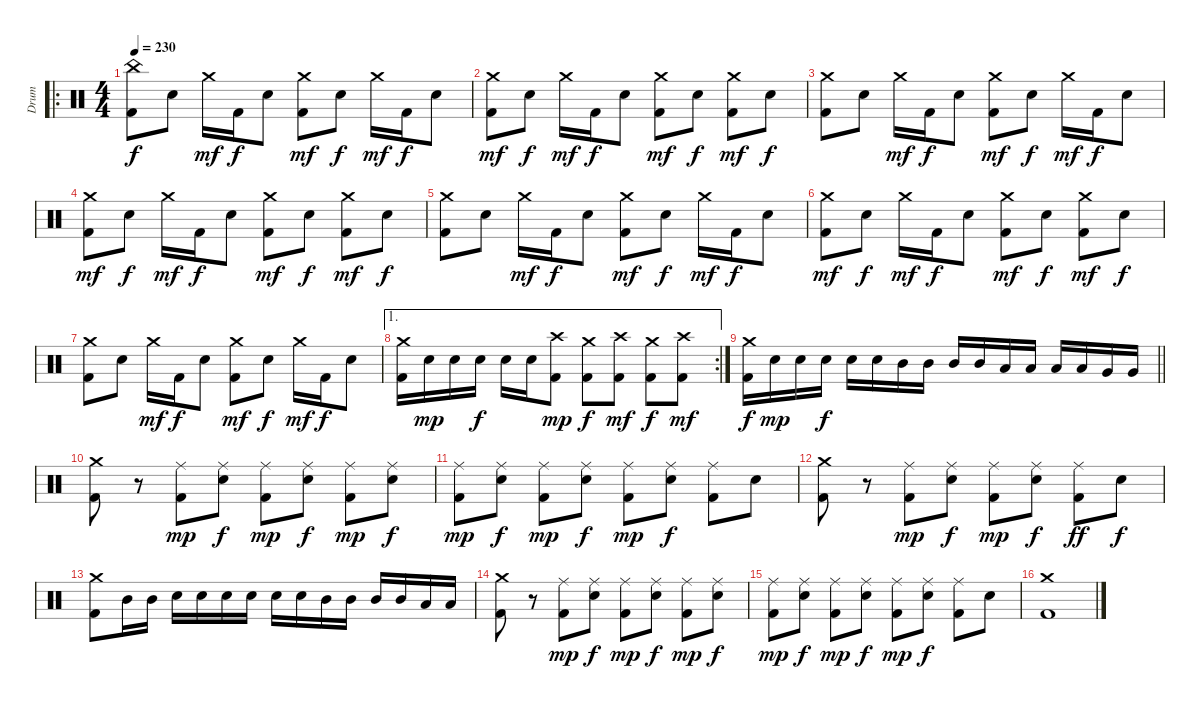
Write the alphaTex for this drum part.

\track ("Drum" "Drum") {instrument percussion}
\staff {score}
\articulation defaults
\ro
\ts (4 4)
\tempo 230
\clef neutral
\ks c
("China (hit)" "Kick (hit) 2").8{dy f} "Electric Snare (hit)".8 "Crash medium (hit)".16{dy mf} "Kick (hit) 2".16{dy f} "Electric Snare (hit)".8 ("Crash medium (hit)" "Kick (hit) 2").8{dy mf} "Electric Snare (hit)".8{dy f} "Crash medium (hit)".16{dy mf} "Kick (hit) 2".16{dy f} "Electric Snare (hit)".8 |
("Crash medium (hit)" "Kick (hit) 2").8{dy mf} "Electric Snare (hit)".8{dy f} "Crash medium (hit)".16{dy mf} "Kick (hit) 2".16{dy f} "Electric Snare (hit)".8 ("Crash medium (hit)" "Kick (hit) 2").8{dy mf} "Electric Snare (hit)".8{dy f} ("Crash medium (hit)" "Kick (hit) 2").8{dy mf} "Electric Snare (hit)".8{dy f} |
("Crash medium (hit)" "Kick (hit) 2").8 "Electric Snare (hit)".8 "Crash medium (hit)".16{dy mf} "Kick (hit) 2".16{dy f} "Electric Snare (hit)".8 ("Crash medium (hit)" "Kick (hit) 2").8{dy mf} "Electric Snare (hit)".8{dy f} "Crash medium (hit)".16{dy mf} "Kick (hit) 2".16{dy f} "Electric Snare (hit)".8 |
("Crash medium (hit)" "Kick (hit) 2").8{dy mf} "Electric Snare (hit)".8{dy f} "Crash medium (hit)".16{dy mf} "Kick (hit) 2".16{dy f} "Electric Snare (hit)".8 ("Crash medium (hit)" "Kick (hit) 2").8{dy mf} "Electric Snare (hit)".8{dy f} ("Crash medium (hit)" "Kick (hit) 2").8{dy mf} "Electric Snare (hit)".8{dy f} |
("Crash medium (hit)" "Kick (hit) 2").8 "Electric Snare (hit)".8 "Crash medium (hit)".16{dy mf} "Kick (hit) 2".16{dy f} "Electric Snare (hit)".8 ("Crash medium (hit)" "Kick (hit) 2").8{dy mf} "Electric Snare (hit)".8{dy f} "Crash medium (hit)".16{dy mf} "Kick (hit) 2".16{dy f} "Electric Snare (hit)".8 |
("Crash medium (hit)" "Kick (hit) 2").8{dy mf} "Electric Snare (hit)".8{dy f} "Crash medium (hit)".16{dy mf} "Kick (hit) 2".16{dy f} "Electric Snare (hit)".8 ("Crash medium (hit)" "Kick (hit) 2").8{dy mf} "Electric Snare (hit)".8{dy f} ("Crash medium (hit)" "Kick (hit) 2").8{dy mf} "Electric Snare (hit)".8{dy f} |
("Crash medium (hit)" "Kick (hit) 2").8 "Electric Snare (hit)".8 "Crash medium (hit)".16{dy mf} "Kick (hit) 2".16{dy f} "Electric Snare (hit)".8 ("Crash medium (hit)" "Kick (hit) 2").8{dy mf} "Electric Snare (hit)".8{dy f} "Crash medium (hit)".16{dy mf} "Kick (hit) 2".16{dy f} "Electric Snare (hit)".8 |
\ae 1
\rc 2
("Crash medium (hit)" "Kick (hit) 2").16 "Electric Snare (hit)".16{dy mp} "Electric Snare (hit)".16 "Electric Snare (hit)".16{dy f} "Electric Snare (hit)".16 "Electric Snare (hit)".16 ("Crash high (hit)" "Kick (hit) 2").8{dy mp} ("Crash medium (hit)" "Kick (hit) 2").8{dy f} ("Crash high (hit)" "Kick (hit) 2").8{dy mf} ("Crash medium (hit)" "Kick (hit) 2").8{dy f} ("Crash high (hit)" "Kick (hit) 2").8{dy mf} |
\barLineRight lightlight
("Crash medium (hit)" "Kick (hit) 2").16{dy f} "Electric Snare (hit)".16{dy mp} "Electric Snare (hit)".16 "Electric Snare (hit)".16{dy f} "Electric Snare (hit)".16 "Electric Snare (hit)".16 "Mid Tom (hit)".16 "Mid Tom (hit)".16 "Mid Tom (hit)".16 "Mid Tom (hit)".16 "Low Tom (hit)".16 "Low Tom (hit)".16 "Low Tom (hit)".16 "Low Tom (hit)".16 "Very Low Tom (hit)".16 "Very Low Tom (hit)".16 |
("Crash medium (hit)" "Kick (hit) 2").8 r.8 ("Ride (middle)" "Kick (hit) 2").8{dy mp} ("Ride (middle)" "Electric Snare (hit)").8{dy f} ("Ride (middle)" "Kick (hit) 2").8{dy mp} ("Ride (middle)" "Electric Snare (hit)").8{dy f} ("Ride (middle)" "Kick (hit) 2").8{dy mp} ("Ride (middle)" "Electric Snare (hit)").8{dy f} |
("Ride (middle)" "Kick (hit) 2").8{dy mp} ("Ride (middle)" "Electric Snare (hit)").8{dy f} ("Ride (middle)" "Kick (hit) 2").8{dy mp} ("Ride (middle)" "Electric Snare (hit)").8{dy f} ("Ride (middle)" "Kick (hit) 2").8{dy mp} ("Ride (middle)" "Electric Snare (hit)").8{dy f} ("Ride (middle)" "Kick (hit) 2").8 "Electric Snare (hit)".8 |
("Crash medium (hit)" "Kick (hit) 2").8 r.8 ("Ride (middle)" "Kick (hit) 2").8{dy mp} ("Ride (middle)" "Electric Snare (hit)").8{dy f} ("Ride (middle)" "Kick (hit) 2").8{dy mp} ("Ride (middle)" "Electric Snare (hit)").8{dy f} ("Ride (middle)" "Kick (hit) 2").8{dy ff} "Electric Snare (hit)".8{dy f} |
("Crash medium (hit)" "Kick (hit) 2").8 "Mid Tom (hit)".16 "Mid Tom (hit)".16 "Electric Snare (hit)".16 "Electric Snare (hit)".16 "Electric Snare (hit)".16 "Electric Snare (hit)".16 "Electric Snare (hit)".16 "Electric Snare (hit)".16 "Mid Tom (hit)".16 "Mid Tom (hit)".16 "Mid Tom (hit)".16 "Mid Tom (hit)".16 "Low Tom (hit)".16 "Low Tom (hit)".16 |
("Crash medium (hit)" "Kick (hit) 2").8 r.8 ("Ride (middle)" "Kick (hit) 2").8{dy mp} ("Ride (middle)" "Electric Snare (hit)").8{dy f} ("Ride (middle)" "Kick (hit) 2").8{dy mp} ("Ride (middle)" "Electric Snare (hit)").8{dy f} ("Ride (middle)" "Kick (hit) 2").8{dy mp} ("Ride (middle)" "Electric Snare (hit)").8{dy f} |
("Ride (middle)" "Kick (hit) 2").8{dy mp} ("Ride (middle)" "Electric Snare (hit)").8{dy f} ("Ride (middle)" "Kick (hit) 2").8{dy mp} ("Ride (middle)" "Electric Snare (hit)").8{dy f} ("Ride (middle)" "Kick (hit) 2").8{dy mp} ("Ride (middle)" "Electric Snare (hit)").8{dy f} ("Ride (middle)" "Kick (hit) 2").8 "Electric Snare (hit)".8 |
("Crash medium (hit)" "Kick (hit) 2").1
